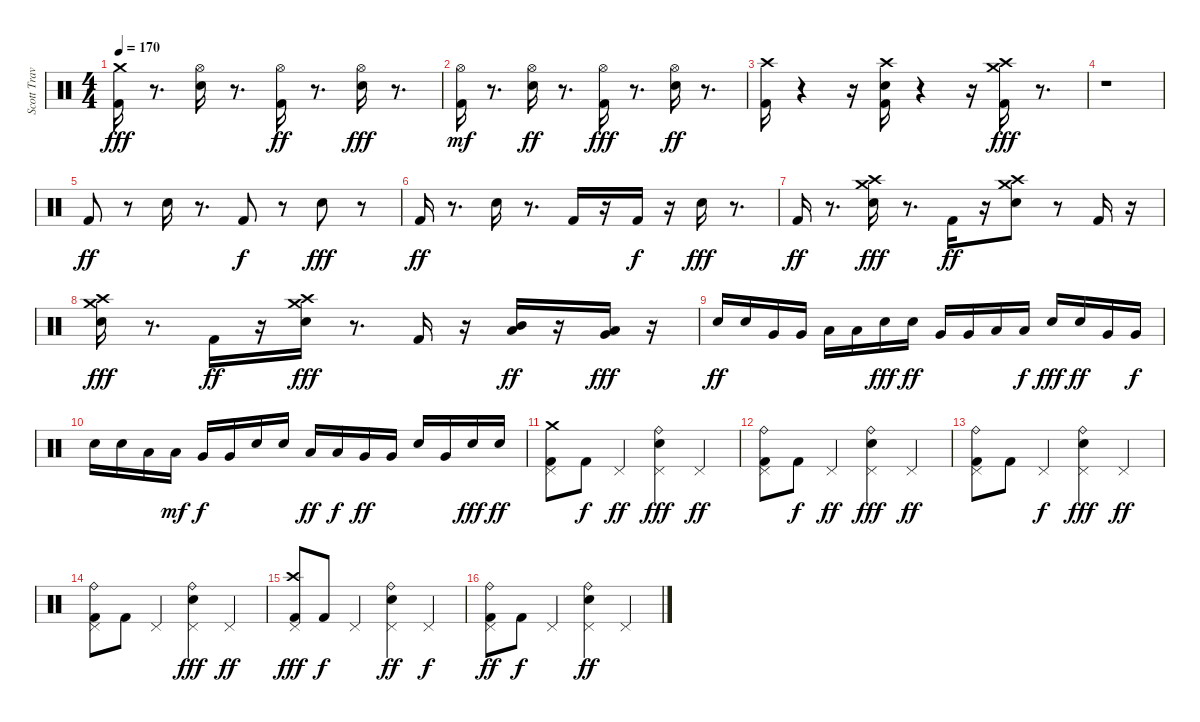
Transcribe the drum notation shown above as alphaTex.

\track ("Scott Travis" "Scott Trav") {instrument percussion}
\staff {score}
\articulation defaults
\ts (4 4)
\tempo 170
\clef neutral
\ks c
("Crash medium (hit)" "Kick (hit) 2").16{dy fff} r.8{d} ("Snare (hit) 2" "Hi-Hat (open)").16 r.8{d} ("Hi-Hat (open)" "Kick (hit) 2").16{dy ff} r.8{d} ("Hi-Hat (open)" "Snare (hit) 2").16{dy fff} r.8{d} |
("Hi-Hat (open)" "Kick (hit) 2").16{dy mf} r.8{d} ("Hi-Hat (open)" "Snare (hit) 2").16{dy ff} r.8{d} ("Kick (hit) 2" "Hi-Hat (open)").16{dy fff} r.8{d} ("Hi-Hat (open)" "Snare (hit) 2").16{dy ff} r.8{d} |
("Crash high (hit)" "Kick (hit) 2").16 r.4 r.16 ("Crash high (hit)" "Kick (hit) 2" "Snare (hit) 2").16 r.4 r.16 ("Crash medium (hit)" "Kick (hit) 2" "Crash high (hit)").16{dy fff} r.8{d} |
r.1 |
"Kick (hit) 2".8{dy ff} r.8 "Snare (hit) 2".16 r.8{d} "Kick (hit) 2".8{dy f} r.8 "Snare (hit) 2".8{dy fff} r.8 |
"Kick (hit) 2".16{dy ff} r.8{d} "Snare (hit) 2".16 r.8{d} "Kick (hit) 2".16 r.16 "Kick (hit) 2".16{dy f} r.16 "Snare (hit) 2".16{dy fff} r.8{d} |
"Kick (hit) 2".16{dy ff} r.8{d} ("Snare (hit) 2" "Crash high (hit)" "Crash medium (hit)").16{dy fff} r.8{d} "Kick (hit) 2".16{dy ff} r.16 ("Snare (hit) 2" "Crash high (hit)" "Crash medium (hit)").8 r.8 "Kick (hit) 2".16 r.16 |
("Snare (hit) 2" "Crash high (hit)" "Crash medium (hit)").16{dy fff} r.8{d} "Kick (hit) 2".16{dy ff} r.16 ("Snare (hit) 2" "Crash medium (hit)" "Crash high (hit)").16{dy fff} r.8{d} "Kick (hit) 2".16 r.16 ("Mid Tom (hit)" "Low Tom (hit)").16{dy ff} r.16 ("Very Low Tom (hit)" "Low Tom (hit)").16{dy fff} r.16 |
"Snare (hit) 2".16{dy ff} "Snare (hit) 2".16 "Very Low Tom (hit)".16 "Very Low Tom (hit)".16 "Low Floor Tom (hit)".16 "Low Floor Tom (hit)".16 "Snare (hit) 2".16{dy fff} "Snare (hit) 2".16{dy ff} "Very Low Tom (hit)".16 "Very Low Tom (hit)".16 "Low Floor Tom (hit)".16 "Low Floor Tom (hit)".16{dy f} "Snare (hit) 2".16{dy fff} "Snare (hit) 2".16{dy ff} "Very Low Tom (hit)".16 "Very Low Tom (hit)".16{dy f} |
"Snare (hit) 2".16 "Snare (hit) 2".16 "Low Tom (hit)".16 "Low Tom (hit)".16{dy mf} "Very Low Tom (hit)".16{dy f} "Very Low Tom (hit)".16 "Snare (hit) 2".16 "Snare (hit) 2".16 "Low Tom (hit)".16{dy ff} "Low Tom (hit)".16{dy f} "Very Low Tom (hit)".16{dy ff} "Very Low Tom (hit)".16 "Snare (hit) 2".16 "Very Low Tom (hit)".16 "Snare (hit) 2".16{dy fff} "Snare (hit) 2".16{dy ff} |
("Pedal Hi-Hat (hit)" "Crash medium (hit)" "Kick (hit) 2").8 "Kick (hit) 2".8{dy f} "Pedal Hi-Hat (hit)".4{dy ff} ("Pedal Hi-Hat (hit)" "Ride (bell)" "Snare (hit) 2").4{dy fff} "Pedal Hi-Hat (hit)".4{dy ff} |
("Pedal Hi-Hat (hit)" "Ride (bell)" "Kick (hit) 2").8 "Kick (hit) 2".8{dy f} "Pedal Hi-Hat (hit)".4{dy ff} ("Pedal Hi-Hat (hit)" "Snare (hit) 2" "Ride (bell)").4{dy fff} "Pedal Hi-Hat (hit)".4{dy ff} |
("Pedal Hi-Hat (hit)" "Kick (hit) 2" "Ride (bell)").8 "Kick (hit) 2".8 "Pedal Hi-Hat (hit)".4{dy f} ("Pedal Hi-Hat (hit)" "Snare (hit) 2" "Ride (bell)").4{dy fff} "Pedal Hi-Hat (hit)".4{dy ff} |
("Pedal Hi-Hat (hit)" "Kick (hit) 2" "Ride (bell)").8 "Kick (hit) 2".8 "Pedal Hi-Hat (hit)".4 ("Pedal Hi-Hat (hit)" "Snare (hit) 2" "Ride (bell)").4{dy fff} "Pedal Hi-Hat (hit)".4{dy ff} |
("Pedal Hi-Hat (hit)" "Kick (hit) 2" "Crash high (hit)").8{dy fff} "Kick (hit) 2".8{dy f} "Pedal Hi-Hat (hit)".4 ("Pedal Hi-Hat (hit)" "Snare (hit) 2" "Ride (bell)").4{dy ff} "Pedal Hi-Hat (hit)".4{dy f} |
("Pedal Hi-Hat (hit)" "Kick (hit) 2" "Ride (bell)").8{dy ff} "Kick (hit) 2".8{dy f} "Pedal Hi-Hat (hit)".4 ("Pedal Hi-Hat (hit)" "Snare (hit) 2" "Ride (bell)").4{dy ff} "Pedal Hi-Hat (hit)".4
